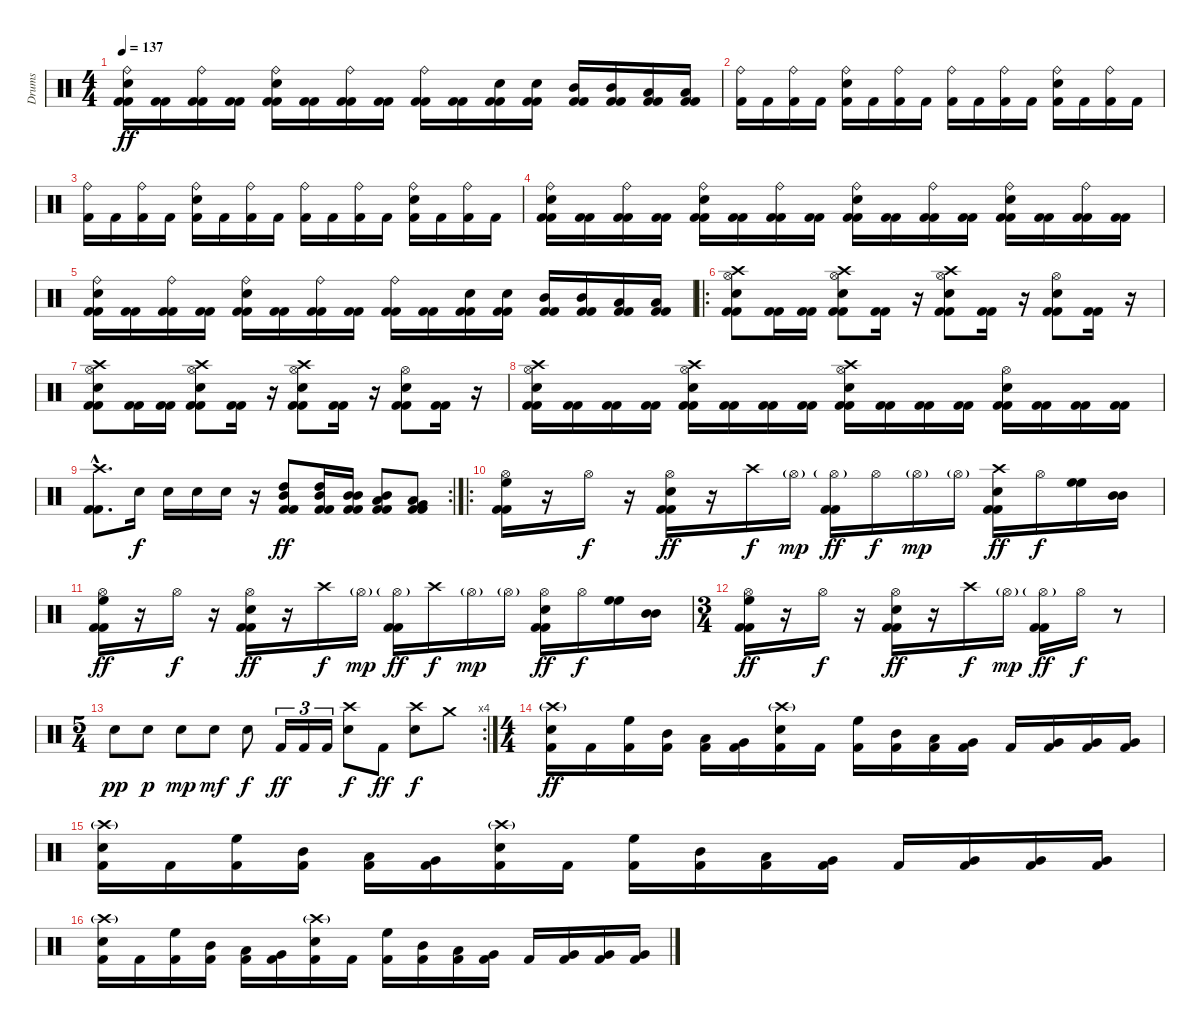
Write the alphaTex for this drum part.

\track ("Drums" "Drums") {instrument percussion}
\staff {score}
\articulation defaults
\ts (4 4)
\tempo 137
\clef neutral
\ks c
("Ride (bell)" "Electric Snare (hit)" "Kick (hit) 2" "Kick (hit) 2").16{dy ff} ("Kick (hit) 2" "Kick (hit) 2").16 ("Ride (bell)" "Kick (hit) 2" "Kick (hit) 2").16 ("Kick (hit) 2" "Kick (hit) 2").16 ("Ride (bell)" "Electric Snare (hit)" "Kick (hit) 2" "Kick (hit) 2").16 ("Kick (hit) 2" "Kick (hit) 2").16 ("Ride (bell)" "Kick (hit) 2" "Kick (hit) 2").16 ("Kick (hit) 2" "Kick (hit) 2").16 ("Ride (bell)" "Kick (hit) 2" "Kick (hit) 2").16 ("Kick (hit) 2" "Kick (hit) 2").16 ("Electric Snare (hit)" "Kick (hit) 2" "Kick (hit) 2").16 ("Electric Snare (hit)" "Kick (hit) 2" "Kick (hit) 2").16 ("Mid Tom (hit)" "Kick (hit) 2" "Kick (hit) 2").16 ("Mid Tom (hit)" "Kick (hit) 2" "Kick (hit) 2").16 ("Low Tom (hit)" "Kick (hit) 2" "Kick (hit) 2").16 ("Low Tom (hit)" "Kick (hit) 2" "Kick (hit) 2").16 |
("Ride (bell)" "Kick (hit) 2").16 "Kick (hit) 2".16 ("Ride (bell)" "Kick (hit) 2").16 "Kick (hit) 2".16 ("Ride (bell)" "Electric Snare (hit)" "Kick (hit) 2").16 "Kick (hit) 2".16 ("Ride (bell)" "Kick (hit) 2").16 "Kick (hit) 2".16 ("Ride (bell)" "Kick (hit) 2").16 "Kick (hit) 2".16 ("Ride (bell)" "Kick (hit) 2").16 "Kick (hit) 2".16 ("Ride (bell)" "Electric Snare (hit)" "Kick (hit) 2").16 "Kick (hit) 2".16 ("Ride (bell)" "Kick (hit) 2").16 "Kick (hit) 2".16 |
("Ride (bell)" "Kick (hit) 2").16 "Kick (hit) 2".16 ("Ride (bell)" "Kick (hit) 2").16 "Kick (hit) 2".16 ("Ride (bell)" "Electric Snare (hit)" "Kick (hit) 2").16 "Kick (hit) 2".16 ("Ride (bell)" "Kick (hit) 2").16 "Kick (hit) 2".16 ("Ride (bell)" "Kick (hit) 2").16 "Kick (hit) 2".16 ("Ride (bell)" "Kick (hit) 2").16 "Kick (hit) 2".16 ("Ride (bell)" "Electric Snare (hit)" "Kick (hit) 2").16 "Kick (hit) 2".16 ("Ride (bell)" "Kick (hit) 2").16 "Kick (hit) 2".16 |
("Ride (bell)" "Electric Snare (hit)" "Kick (hit) 2" "Kick (hit) 2").16 ("Kick (hit) 2" "Kick (hit) 2").16 ("Ride (bell)" "Kick (hit) 2" "Kick (hit) 2").16 ("Kick (hit) 2" "Kick (hit) 2").16 ("Ride (bell)" "Electric Snare (hit)" "Kick (hit) 2" "Kick (hit) 2").16 ("Kick (hit) 2" "Kick (hit) 2").16 ("Ride (bell)" "Kick (hit) 2" "Kick (hit) 2").16 ("Kick (hit) 2" "Kick (hit) 2").16 ("Ride (bell)" "Electric Snare (hit)" "Kick (hit) 2" "Kick (hit) 2").16 ("Kick (hit) 2" "Kick (hit) 2").16 ("Ride (bell)" "Kick (hit) 2" "Kick (hit) 2").16 ("Kick (hit) 2" "Kick (hit) 2").16 ("Ride (bell)" "Electric Snare (hit)" "Kick (hit) 2" "Kick (hit) 2").16 ("Kick (hit) 2" "Kick (hit) 2").16 ("Ride (bell)" "Kick (hit) 2" "Kick (hit) 2").16 ("Kick (hit) 2" "Kick (hit) 2").16 |
("Ride (bell)" "Electric Snare (hit)" "Kick (hit) 2" "Kick (hit) 2").16 ("Kick (hit) 2" "Kick (hit) 2").16 ("Ride (bell)" "Kick (hit) 2" "Kick (hit) 2").16 ("Kick (hit) 2" "Kick (hit) 2").16 ("Ride (bell)" "Electric Snare (hit)" "Kick (hit) 2" "Kick (hit) 2").16 ("Kick (hit) 2" "Kick (hit) 2").16 ("Ride (bell)" "Kick (hit) 2" "Kick (hit) 2").16 ("Kick (hit) 2" "Kick (hit) 2").16 ("Ride (bell)" "Kick (hit) 2" "Kick (hit) 2").16 ("Kick (hit) 2" "Kick (hit) 2").16 ("Electric Snare (hit)" "Kick (hit) 2" "Kick (hit) 2").16 ("Electric Snare (hit)" "Kick (hit) 2" "Kick (hit) 2").16 ("Mid Tom (hit)" "Kick (hit) 2" "Kick (hit) 2").16 ("Mid Tom (hit)" "Kick (hit) 2" "Kick (hit) 2").16 ("Low Tom (hit)" "Kick (hit) 2" "Kick (hit) 2").16 ("Low Tom (hit)" "Kick (hit) 2" "Kick (hit) 2").16 |
\ro
("Hi-Hat (open)" "Crash high (hit)" "Electric Snare (hit)" "Kick (hit) 2" "Kick (hit) 2").8 ("Kick (hit) 2" "Kick (hit) 2").16 ("Kick (hit) 2" "Kick (hit) 2").16 ("Hi-Hat (open)" "Crash high (hit)" "Electric Snare (hit)" "Kick (hit) 2" "Kick (hit) 2").8 ("Kick (hit) 2" "Kick (hit) 2").16 r.16 ("Hi-Hat (open)" "Crash high (hit)" "Electric Snare (hit)" "Kick (hit) 2" "Kick (hit) 2").8 ("Kick (hit) 2" "Kick (hit) 2").16 r.16 ("Hi-Hat (open)" "Electric Snare (hit)" "Kick (hit) 2" "Kick (hit) 2").8 ("Kick (hit) 2" "Kick (hit) 2").16 r.16 |
("Hi-Hat (open)" "Crash high (hit)" "Electric Snare (hit)" "Kick (hit) 2" "Kick (hit) 2").8 ("Kick (hit) 2" "Kick (hit) 2").16 ("Kick (hit) 2" "Kick (hit) 2").16 ("Hi-Hat (open)" "Crash high (hit)" "Electric Snare (hit)" "Kick (hit) 2" "Kick (hit) 2").8 ("Kick (hit) 2" "Kick (hit) 2").16 r.16 ("Hi-Hat (open)" "Crash high (hit)" "Electric Snare (hit)" "Kick (hit) 2" "Kick (hit) 2").8 ("Kick (hit) 2" "Kick (hit) 2").16 r.16 ("Hi-Hat (open)" "Electric Snare (hit)" "Kick (hit) 2" "Kick (hit) 2").8 ("Kick (hit) 2" "Kick (hit) 2").16 r.16 |
("Hi-Hat (open)" "Crash high (hit)" "Electric Snare (hit)" "Kick (hit) 2" "Kick (hit) 2").16 ("Kick (hit) 2" "Kick (hit) 2").16 ("Kick (hit) 2" "Kick (hit) 2").16 ("Kick (hit) 2" "Kick (hit) 2").16 ("Hi-Hat (open)" "Crash high (hit)" "Electric Snare (hit)" "Kick (hit) 2" "Kick (hit) 2").16 ("Kick (hit) 2" "Kick (hit) 2").16 ("Kick (hit) 2" "Kick (hit) 2").16 ("Kick (hit) 2" "Kick (hit) 2").16 ("Hi-Hat (open)" "Crash high (hit)" "Electric Snare (hit)" "Kick (hit) 2" "Kick (hit) 2").16 ("Kick (hit) 2" "Kick (hit) 2").16 ("Kick (hit) 2" "Kick (hit) 2").16 ("Kick (hit) 2" "Kick (hit) 2").16 ("Hi-Hat (open)" "Electric Snare (hit)" "Kick (hit) 2" "Kick (hit) 2").16 ("Kick (hit) 2" "Kick (hit) 2").16 ("Kick (hit) 2" "Kick (hit) 2").16 ("Kick (hit) 2" "Kick (hit) 2").16 |
\rc 2
("Crash high (hit)"{hac} "Kick (hit) 2"{hac} "Kick (hit) 2"{hac}).8{d} "Electric Snare (hit)".16{dy f} "Electric Snare (hit)".16 "Electric Snare (hit)".16 "Electric Snare (hit)".16 r.16 ("High Tom (hit)" "Mid Tom (hit)" "Kick (hit) 2" "Kick (hit) 2").8{dy ff} ("Mid Tom (hit)" "High Tom (hit)" "Kick (hit) 2" "Kick (hit) 2").16 ("Mid Tom (hit)" "Mid Tom (hit)" "Kick (hit) 2" "Kick (hit) 2").16 ("Mid Tom (hit)" "Low Tom (hit)" "Kick (hit) 2" "Kick (hit) 2").8 ("Low Tom (hit)" "Very Low Tom (hit)" "Kick (hit) 2" "Kick (hit) 2").8 |
\ro
("Hi-Hat (open)" "High Floor Tom (hit)" "Kick (hit) 2" "Kick (hit) 2").16 r.16 "Hi-Hat (open)".16{dy f} r.16 ("Hi-Hat (open)" "Electric Snare (hit)" "Kick (hit) 2" "Kick (hit) 2").16{dy ff} r.16 "Crash high (hit)".16{dy f} "Hi-Hat (open)"{g}.16{dy mp} ("Hi-Hat (open)"{g} "Kick (hit) 2" "Kick (hit) 2").16{dy ff} "Hi-Hat (open)".16{dy f} "Hi-Hat (open)"{g}.16{dy mp} "Hi-Hat (open)"{g}.16 ("Crash high (hit)" "Electric Snare (hit)" "Kick (hit) 2" "Kick (hit) 2").16{dy ff} "Hi-Hat (open)".16{dy f} ("High Floor Tom (hit)" "High Floor Tom (hit)").16 ("Mid Tom (hit)" "Mid Tom (hit)").16 |
("Hi-Hat (open)" "High Floor Tom (hit)" "Kick (hit) 2" "Kick (hit) 2").16{dy ff} r.16 "Hi-Hat (open)".16{dy f} r.16 ("Hi-Hat (open)" "Electric Snare (hit)" "Kick (hit) 2" "Kick (hit) 2").16{dy ff} r.16 "Crash high (hit)".16{dy f} "Hi-Hat (open)"{g}.16{dy mp} ("Hi-Hat (open)"{g} "Kick (hit) 2" "Kick (hit) 2").16{dy ff} "Crash high (hit)".16{dy f} "Hi-Hat (open)"{g}.16{dy mp} "Hi-Hat (open)"{g}.16 ("Hi-Hat (open)" "Electric Snare (hit)" "Kick (hit) 2" "Kick (hit) 2").16{dy ff} "Hi-Hat (open)".16{dy f} ("High Floor Tom (hit)" "High Floor Tom (hit)").16 ("Mid Tom (hit)" "Mid Tom (hit)").16 |
\ts (3 4)
("Hi-Hat (open)" "High Floor Tom (hit)" "Kick (hit) 2" "Kick (hit) 2").16{dy ff} r.16 "Hi-Hat (open)".16{dy f} r.16 ("Hi-Hat (open)" "Electric Snare (hit)" "Kick (hit) 2" "Kick (hit) 2").16{dy ff} r.16 "Crash high (hit)".16{dy f} "Hi-Hat (open)"{g}.16{dy mp} ("Hi-Hat (open)"{g} "Kick (hit) 2" "Kick (hit) 2").16{dy ff} "Hi-Hat (open)".16{dy f} r.8 |
\rc 4
\ts (5 4)
"Electric Snare (hit)".8{dy pp} "Electric Snare (hit)".8{dy p} "Electric Snare (hit)".8{dy mp} "Electric Snare (hit)".8{dy mf} "Electric Snare (hit)".8{dy f} "Kick (hit) 2".16{tu (3 2) dy ff} "Kick (hit) 2".16{tu (3 2)} "Kick (hit) 2".16{tu (3 2)} ("Electric Snare (hit)" "Crash high (hit)").8{dy f} "Kick (hit) 2".8{dy ff} ("Electric Snare (hit)" "Crash high (hit)").8{dy f} "Crash medium (hit)".8 |
\ts (4 4)
("Crash high (hit)"{g} "Electric Snare (hit)" "Kick (hit) 2").16{dy ff} "Kick (hit) 2".16 ("High Floor Tom (hit)" "Kick (hit) 2").16 ("Mid Tom (hit)" "Kick (hit) 2").16 ("Low Tom (hit)" "Kick (hit) 2").16 ("Very Low Tom (hit)" "Kick (hit) 2").16 ("Crash high (hit)"{g} "Electric Snare (hit)" "Kick (hit) 2").16 "Kick (hit) 2".16 ("High Floor Tom (hit)" "Kick (hit) 2").16 ("Mid Tom (hit)" "Kick (hit) 2").16 ("Low Tom (hit)" "Kick (hit) 2").16 ("Very Low Tom (hit)" "Kick (hit) 2").16 "Kick (hit) 2".16 ("Very Low Tom (hit)" "Kick (hit) 2").16 ("Very Low Tom (hit)" "Kick (hit) 2").16 ("Very Low Tom (hit)" "Kick (hit) 2").16 |
("Crash high (hit)"{g} "Electric Snare (hit)" "Kick (hit) 2").16 "Kick (hit) 2".16 ("High Floor Tom (hit)" "Kick (hit) 2").16 ("Mid Tom (hit)" "Kick (hit) 2").16 ("Low Tom (hit)" "Kick (hit) 2").16 ("Very Low Tom (hit)" "Kick (hit) 2").16 ("Crash high (hit)"{g} "Electric Snare (hit)" "Kick (hit) 2").16 "Kick (hit) 2".16 ("High Floor Tom (hit)" "Kick (hit) 2").16 ("Mid Tom (hit)" "Kick (hit) 2").16 ("Low Tom (hit)" "Kick (hit) 2").16 ("Very Low Tom (hit)" "Kick (hit) 2").16 "Kick (hit) 2".16 ("Very Low Tom (hit)" "Kick (hit) 2").16 ("Very Low Tom (hit)" "Kick (hit) 2").16 ("Very Low Tom (hit)" "Kick (hit) 2").16 |
("Crash high (hit)"{g} "Electric Snare (hit)" "Kick (hit) 2").16 "Kick (hit) 2".16 ("High Floor Tom (hit)" "Kick (hit) 2").16 ("Mid Tom (hit)" "Kick (hit) 2").16 ("Low Tom (hit)" "Kick (hit) 2").16 ("Very Low Tom (hit)" "Kick (hit) 2").16 ("Crash high (hit)"{g} "Electric Snare (hit)" "Kick (hit) 2").16 "Kick (hit) 2".16 ("High Floor Tom (hit)" "Kick (hit) 2").16 ("Mid Tom (hit)" "Kick (hit) 2").16 ("Low Tom (hit)" "Kick (hit) 2").16 ("Very Low Tom (hit)" "Kick (hit) 2").16 "Kick (hit) 2".16 ("Very Low Tom (hit)" "Kick (hit) 2").16 ("Very Low Tom (hit)" "Kick (hit) 2").16 ("Very Low Tom (hit)" "Kick (hit) 2").16
